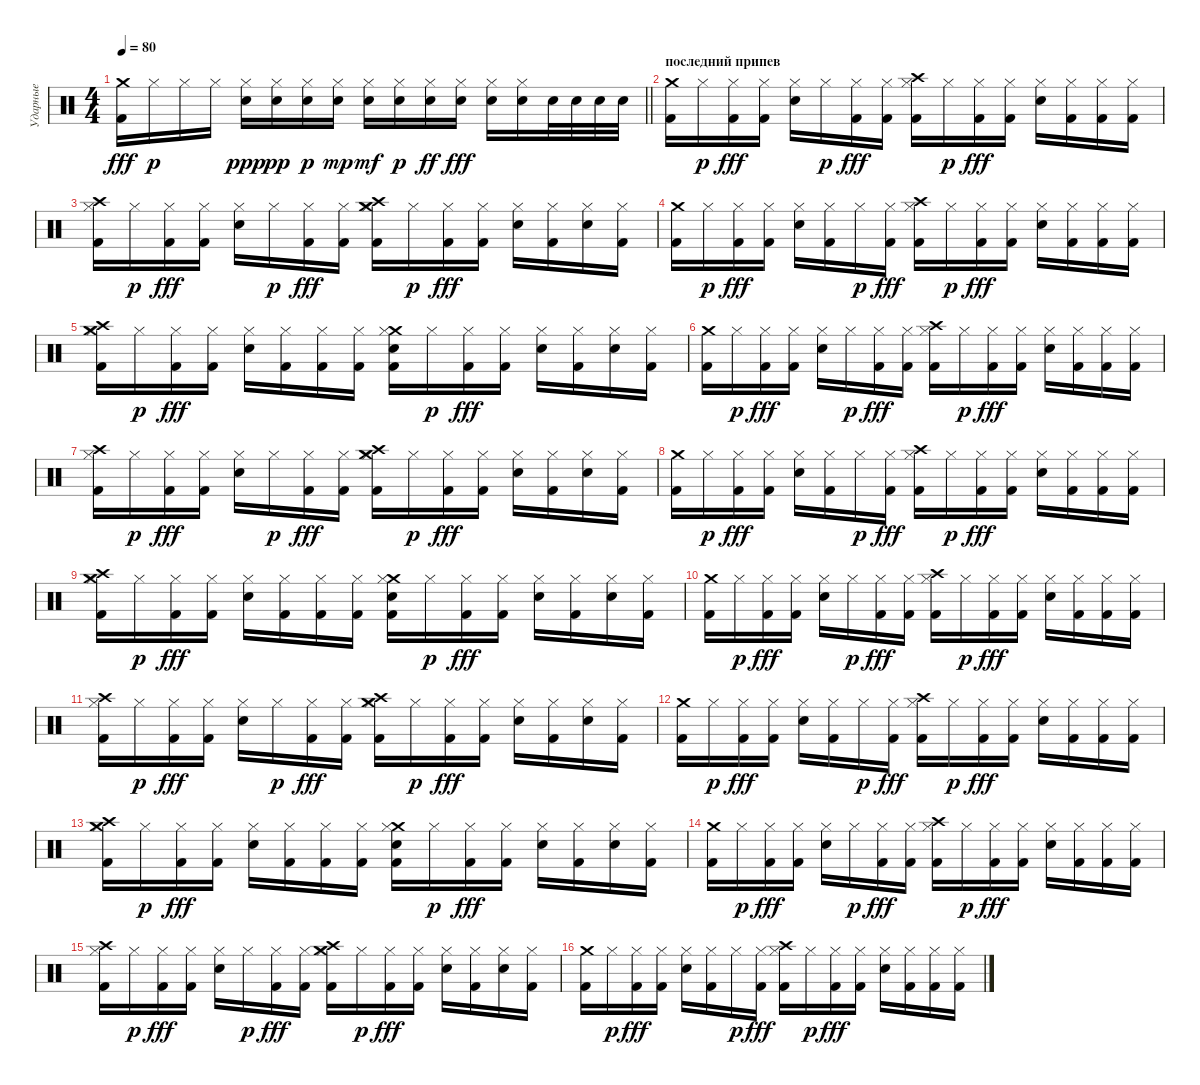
\track ("Ударные" "Ударные") {instrument percussion}
\staff {score}
\articulation defaults
\ts (4 4)
\tempo 80
\clef neutral
\barLineRight lightlight
\ks c
("Crash medium (hit)" "Kick (hit) 2").16{dy fff} "Hi-Hat (closed)".16{dy p} "Hi-Hat (closed)".16 "Hi-Hat (closed)".16 ("Hi-Hat (closed)" "Snare (hit) 2").16{dy ppp} ("Hi-Hat (closed)" "Snare (hit) 2").16{dy pp} ("Hi-Hat (closed)" "Snare (hit) 2").16{dy p} ("Hi-Hat (closed)" "Snare (hit) 2").16{dy mp} ("Hi-Hat (closed)" "Snare (hit) 2").16{dy mf} ("Hi-Hat (closed)" "Snare (hit) 2").16{dy p} ("Hi-Hat (closed)" "Snare (hit) 2").16{dy ff} ("Hi-Hat (closed)" "Snare (hit) 2").16{dy fff} ("Hi-Hat (closed)" "Snare (hit) 2").16 ("Hi-Hat (closed)" "Snare (hit) 2").16 "Snare (hit) 2".32 "Snare (hit) 2".32 "Snare (hit) 2".32 "Snare (hit) 2".32 |
\section ("" "последний припев")
("Crash medium (hit)" "Kick (hit) 2").16 "Hi-Hat (closed)".16{dy p} ("Hi-Hat (closed)" "Kick (hit) 2").16{dy fff} ("Hi-Hat (closed)" "Kick (hit) 2").16 ("Hi-Hat (closed)" "Snare (hit) 2").16 "Hi-Hat (closed)".16{dy p} ("Hi-Hat (closed)" "Kick (hit) 2").16{dy fff} ("Hi-Hat (closed)" "Kick (hit) 2").16 ("Crash high (hit)" "Hi-Hat (closed)" "Kick (hit) 2").16 "Hi-Hat (closed)".16{dy p} ("Hi-Hat (closed)" "Kick (hit) 2").16{dy fff} ("Hi-Hat (closed)" "Kick (hit) 2").16 ("Hi-Hat (closed)" "Snare (hit) 2").16 ("Hi-Hat (closed)" "Kick (hit) 2").16 ("Hi-Hat (closed)" "Kick (hit) 2").16 ("Hi-Hat (closed)" "Kick (hit) 2").16 |
("Crash high (hit)" "Hi-Hat (closed)" "Kick (hit) 2").16 "Hi-Hat (closed)".16{dy p} ("Hi-Hat (closed)" "Kick (hit) 2").16{dy fff} ("Hi-Hat (closed)" "Kick (hit) 2").16 ("Hi-Hat (closed)" "Snare (hit) 2").16 "Hi-Hat (closed)".16{dy p} ("Hi-Hat (closed)" "Kick (hit) 2").16{dy fff} ("Hi-Hat (closed)" "Kick (hit) 2").16 ("Crash medium (hit)" "Crash high (hit)" "Hi-Hat (closed)" "Kick (hit) 2").16 "Hi-Hat (closed)".16{dy p} ("Hi-Hat (closed)" "Kick (hit) 2").16{dy fff} ("Hi-Hat (closed)" "Kick (hit) 2").16 ("Hi-Hat (closed)" "Snare (hit) 2").16 ("Hi-Hat (closed)" "Kick (hit) 2").16 ("Hi-Hat (closed)" "Snare (hit) 2").16 ("Hi-Hat (closed)" "Kick (hit) 2").16 |
("Crash medium (hit)" "Kick (hit) 2").16 "Hi-Hat (closed)".16{dy p} ("Hi-Hat (closed)" "Kick (hit) 2").16{dy fff} ("Hi-Hat (closed)" "Kick (hit) 2").16 ("Hi-Hat (closed)" "Snare (hit) 2").16 ("Hi-Hat (closed)" "Kick (hit) 2").16 "Hi-Hat (closed)".16{dy p} ("Hi-Hat (closed)" "Kick (hit) 2").16{dy fff} ("Crash high (hit)" "Hi-Hat (closed)" "Kick (hit) 2").16 "Hi-Hat (closed)".16{dy p} ("Hi-Hat (closed)" "Kick (hit) 2").16{dy fff} ("Hi-Hat (closed)" "Kick (hit) 2").16 ("Hi-Hat (closed)" "Snare (hit) 2").16 ("Hi-Hat (closed)" "Kick (hit) 2").16 ("Hi-Hat (closed)" "Kick (hit) 2").16 ("Hi-Hat (closed)" "Kick (hit) 2").16 |
("Crash high (hit)" "Crash medium (hit)" "Hi-Hat (closed)" "Kick (hit) 2").16 "Hi-Hat (closed)".16{dy p} ("Hi-Hat (closed)" "Kick (hit) 2").16{dy fff} ("Hi-Hat (closed)" "Kick (hit) 2").16 ("Hi-Hat (closed)" "Snare (hit) 2").16 ("Hi-Hat (closed)" "Kick (hit) 2").16 ("Hi-Hat (closed)" "Kick (hit) 2").16 ("Hi-Hat (closed)" "Kick (hit) 2").16 ("Crash medium (hit)" "Hi-Hat (closed)" "Snare (hit) 2" "Kick (hit) 2").16 "Hi-Hat (closed)".16{dy p} ("Hi-Hat (closed)" "Kick (hit) 2").16{dy fff} ("Hi-Hat (closed)" "Kick (hit) 2").16 ("Hi-Hat (closed)" "Snare (hit) 2").16 ("Hi-Hat (closed)" "Kick (hit) 2").16 ("Hi-Hat (closed)" "Snare (hit) 2").16 ("Hi-Hat (closed)" "Kick (hit) 2").16 |
("Crash medium (hit)" "Kick (hit) 2").16 "Hi-Hat (closed)".16{dy p} ("Hi-Hat (closed)" "Kick (hit) 2").16{dy fff} ("Hi-Hat (closed)" "Kick (hit) 2").16 ("Hi-Hat (closed)" "Snare (hit) 2").16 "Hi-Hat (closed)".16{dy p} ("Hi-Hat (closed)" "Kick (hit) 2").16{dy fff} ("Hi-Hat (closed)" "Kick (hit) 2").16 ("Crash high (hit)" "Hi-Hat (closed)" "Kick (hit) 2").16 "Hi-Hat (closed)".16{dy p} ("Hi-Hat (closed)" "Kick (hit) 2").16{dy fff} ("Hi-Hat (closed)" "Kick (hit) 2").16 ("Hi-Hat (closed)" "Snare (hit) 2").16 ("Hi-Hat (closed)" "Kick (hit) 2").16 ("Hi-Hat (closed)" "Kick (hit) 2").16 ("Hi-Hat (closed)" "Kick (hit) 2").16 |
("Crash high (hit)" "Hi-Hat (closed)" "Kick (hit) 2").16 "Hi-Hat (closed)".16{dy p} ("Hi-Hat (closed)" "Kick (hit) 2").16{dy fff} ("Hi-Hat (closed)" "Kick (hit) 2").16 ("Hi-Hat (closed)" "Snare (hit) 2").16 "Hi-Hat (closed)".16{dy p} ("Hi-Hat (closed)" "Kick (hit) 2").16{dy fff} ("Hi-Hat (closed)" "Kick (hit) 2").16 ("Crash medium (hit)" "Crash high (hit)" "Hi-Hat (closed)" "Kick (hit) 2").16 "Hi-Hat (closed)".16{dy p} ("Hi-Hat (closed)" "Kick (hit) 2").16{dy fff} ("Hi-Hat (closed)" "Kick (hit) 2").16 ("Hi-Hat (closed)" "Snare (hit) 2").16 ("Hi-Hat (closed)" "Kick (hit) 2").16 ("Hi-Hat (closed)" "Snare (hit) 2").16 ("Hi-Hat (closed)" "Kick (hit) 2").16 |
("Crash medium (hit)" "Kick (hit) 2").16 "Hi-Hat (closed)".16{dy p} ("Hi-Hat (closed)" "Kick (hit) 2").16{dy fff} ("Hi-Hat (closed)" "Kick (hit) 2").16 ("Hi-Hat (closed)" "Snare (hit) 2").16 ("Hi-Hat (closed)" "Kick (hit) 2").16 "Hi-Hat (closed)".16{dy p} ("Hi-Hat (closed)" "Kick (hit) 2").16{dy fff} ("Crash high (hit)" "Hi-Hat (closed)" "Kick (hit) 2").16 "Hi-Hat (closed)".16{dy p} ("Hi-Hat (closed)" "Kick (hit) 2").16{dy fff} ("Hi-Hat (closed)" "Kick (hit) 2").16 ("Hi-Hat (closed)" "Snare (hit) 2").16 ("Hi-Hat (closed)" "Kick (hit) 2").16 ("Hi-Hat (closed)" "Kick (hit) 2").16 ("Hi-Hat (closed)" "Kick (hit) 2").16 |
("Crash high (hit)" "Crash medium (hit)" "Hi-Hat (closed)" "Kick (hit) 2").16 "Hi-Hat (closed)".16{dy p} ("Hi-Hat (closed)" "Kick (hit) 2").16{dy fff} ("Hi-Hat (closed)" "Kick (hit) 2").16 ("Hi-Hat (closed)" "Snare (hit) 2").16 ("Hi-Hat (closed)" "Kick (hit) 2").16 ("Hi-Hat (closed)" "Kick (hit) 2").16 ("Hi-Hat (closed)" "Kick (hit) 2").16 ("Crash medium (hit)" "Hi-Hat (closed)" "Snare (hit) 2" "Kick (hit) 2").16 "Hi-Hat (closed)".16{dy p} ("Hi-Hat (closed)" "Kick (hit) 2").16{dy fff} ("Hi-Hat (closed)" "Kick (hit) 2").16 ("Hi-Hat (closed)" "Snare (hit) 2").16 ("Hi-Hat (closed)" "Kick (hit) 2").16 ("Hi-Hat (closed)" "Snare (hit) 2").16 ("Hi-Hat (closed)" "Kick (hit) 2").16 |
("Crash medium (hit)" "Kick (hit) 2").16 "Hi-Hat (closed)".16{dy p} ("Hi-Hat (closed)" "Kick (hit) 2").16{dy fff} ("Hi-Hat (closed)" "Kick (hit) 2").16 ("Hi-Hat (closed)" "Snare (hit) 2").16 "Hi-Hat (closed)".16{dy p} ("Hi-Hat (closed)" "Kick (hit) 2").16{dy fff} ("Hi-Hat (closed)" "Kick (hit) 2").16 ("Crash high (hit)" "Hi-Hat (closed)" "Kick (hit) 2").16 "Hi-Hat (closed)".16{dy p} ("Hi-Hat (closed)" "Kick (hit) 2").16{dy fff} ("Hi-Hat (closed)" "Kick (hit) 2").16 ("Hi-Hat (closed)" "Snare (hit) 2").16 ("Hi-Hat (closed)" "Kick (hit) 2").16 ("Hi-Hat (closed)" "Kick (hit) 2").16 ("Hi-Hat (closed)" "Kick (hit) 2").16 |
("Crash high (hit)" "Hi-Hat (closed)" "Kick (hit) 2").16 "Hi-Hat (closed)".16{dy p} ("Hi-Hat (closed)" "Kick (hit) 2").16{dy fff} ("Hi-Hat (closed)" "Kick (hit) 2").16 ("Hi-Hat (closed)" "Snare (hit) 2").16 "Hi-Hat (closed)".16{dy p} ("Hi-Hat (closed)" "Kick (hit) 2").16{dy fff} ("Hi-Hat (closed)" "Kick (hit) 2").16 ("Crash medium (hit)" "Crash high (hit)" "Hi-Hat (closed)" "Kick (hit) 2").16 "Hi-Hat (closed)".16{dy p} ("Hi-Hat (closed)" "Kick (hit) 2").16{dy fff} ("Hi-Hat (closed)" "Kick (hit) 2").16 ("Hi-Hat (closed)" "Snare (hit) 2").16 ("Hi-Hat (closed)" "Kick (hit) 2").16 ("Hi-Hat (closed)" "Snare (hit) 2").16 ("Hi-Hat (closed)" "Kick (hit) 2").16 |
("Crash medium (hit)" "Kick (hit) 2").16 "Hi-Hat (closed)".16{dy p} ("Hi-Hat (closed)" "Kick (hit) 2").16{dy fff} ("Hi-Hat (closed)" "Kick (hit) 2").16 ("Hi-Hat (closed)" "Snare (hit) 2").16 ("Hi-Hat (closed)" "Kick (hit) 2").16 "Hi-Hat (closed)".16{dy p} ("Hi-Hat (closed)" "Kick (hit) 2").16{dy fff} ("Crash high (hit)" "Hi-Hat (closed)" "Kick (hit) 2").16 "Hi-Hat (closed)".16{dy p} ("Hi-Hat (closed)" "Kick (hit) 2").16{dy fff} ("Hi-Hat (closed)" "Kick (hit) 2").16 ("Hi-Hat (closed)" "Snare (hit) 2").16 ("Hi-Hat (closed)" "Kick (hit) 2").16 ("Hi-Hat (closed)" "Kick (hit) 2").16 ("Hi-Hat (closed)" "Kick (hit) 2").16 |
("Crash high (hit)" "Crash medium (hit)" "Hi-Hat (closed)" "Kick (hit) 2").16 "Hi-Hat (closed)".16{dy p} ("Hi-Hat (closed)" "Kick (hit) 2").16{dy fff} ("Hi-Hat (closed)" "Kick (hit) 2").16 ("Hi-Hat (closed)" "Snare (hit) 2").16 ("Hi-Hat (closed)" "Kick (hit) 2").16 ("Hi-Hat (closed)" "Kick (hit) 2").16 ("Hi-Hat (closed)" "Kick (hit) 2").16 ("Crash medium (hit)" "Hi-Hat (closed)" "Snare (hit) 2" "Kick (hit) 2").16 "Hi-Hat (closed)".16{dy p} ("Hi-Hat (closed)" "Kick (hit) 2").16{dy fff} ("Hi-Hat (closed)" "Kick (hit) 2").16 ("Hi-Hat (closed)" "Snare (hit) 2").16 ("Hi-Hat (closed)" "Kick (hit) 2").16 ("Hi-Hat (closed)" "Snare (hit) 2").16 ("Hi-Hat (closed)" "Kick (hit) 2").16 |
("Crash medium (hit)" "Kick (hit) 2").16 "Hi-Hat (closed)".16{dy p} ("Hi-Hat (closed)" "Kick (hit) 2").16{dy fff} ("Hi-Hat (closed)" "Kick (hit) 2").16 ("Hi-Hat (closed)" "Snare (hit) 2").16 "Hi-Hat (closed)".16{dy p} ("Hi-Hat (closed)" "Kick (hit) 2").16{dy fff} ("Hi-Hat (closed)" "Kick (hit) 2").16 ("Crash high (hit)" "Hi-Hat (closed)" "Kick (hit) 2").16 "Hi-Hat (closed)".16{dy p} ("Hi-Hat (closed)" "Kick (hit) 2").16{dy fff} ("Hi-Hat (closed)" "Kick (hit) 2").16 ("Hi-Hat (closed)" "Snare (hit) 2").16 ("Hi-Hat (closed)" "Kick (hit) 2").16 ("Hi-Hat (closed)" "Kick (hit) 2").16 ("Hi-Hat (closed)" "Kick (hit) 2").16 |
("Crash high (hit)" "Hi-Hat (closed)" "Kick (hit) 2").16 "Hi-Hat (closed)".16{dy p} ("Hi-Hat (closed)" "Kick (hit) 2").16{dy fff} ("Hi-Hat (closed)" "Kick (hit) 2").16 ("Hi-Hat (closed)" "Snare (hit) 2").16 "Hi-Hat (closed)".16{dy p} ("Hi-Hat (closed)" "Kick (hit) 2").16{dy fff} ("Hi-Hat (closed)" "Kick (hit) 2").16 ("Crash medium (hit)" "Crash high (hit)" "Hi-Hat (closed)" "Kick (hit) 2").16 "Hi-Hat (closed)".16{dy p} ("Hi-Hat (closed)" "Kick (hit) 2").16{dy fff} ("Hi-Hat (closed)" "Kick (hit) 2").16 ("Hi-Hat (closed)" "Snare (hit) 2").16 ("Hi-Hat (closed)" "Kick (hit) 2").16 ("Hi-Hat (closed)" "Snare (hit) 2").16 ("Hi-Hat (closed)" "Kick (hit) 2").16 |
("Crash medium (hit)" "Kick (hit) 2").16 "Hi-Hat (closed)".16{dy p} ("Hi-Hat (closed)" "Kick (hit) 2").16{dy fff} ("Hi-Hat (closed)" "Kick (hit) 2").16 ("Hi-Hat (closed)" "Snare (hit) 2").16 ("Hi-Hat (closed)" "Kick (hit) 2").16 "Hi-Hat (closed)".16{dy p} ("Hi-Hat (closed)" "Kick (hit) 2").16{dy fff} ("Crash high (hit)" "Hi-Hat (closed)" "Kick (hit) 2").16 "Hi-Hat (closed)".16{dy p} ("Hi-Hat (closed)" "Kick (hit) 2").16{dy fff} ("Hi-Hat (closed)" "Kick (hit) 2").16 ("Hi-Hat (closed)" "Snare (hit) 2").16 ("Hi-Hat (closed)" "Kick (hit) 2").16 ("Hi-Hat (closed)" "Kick (hit) 2").16 ("Hi-Hat (closed)" "Kick (hit) 2").16
